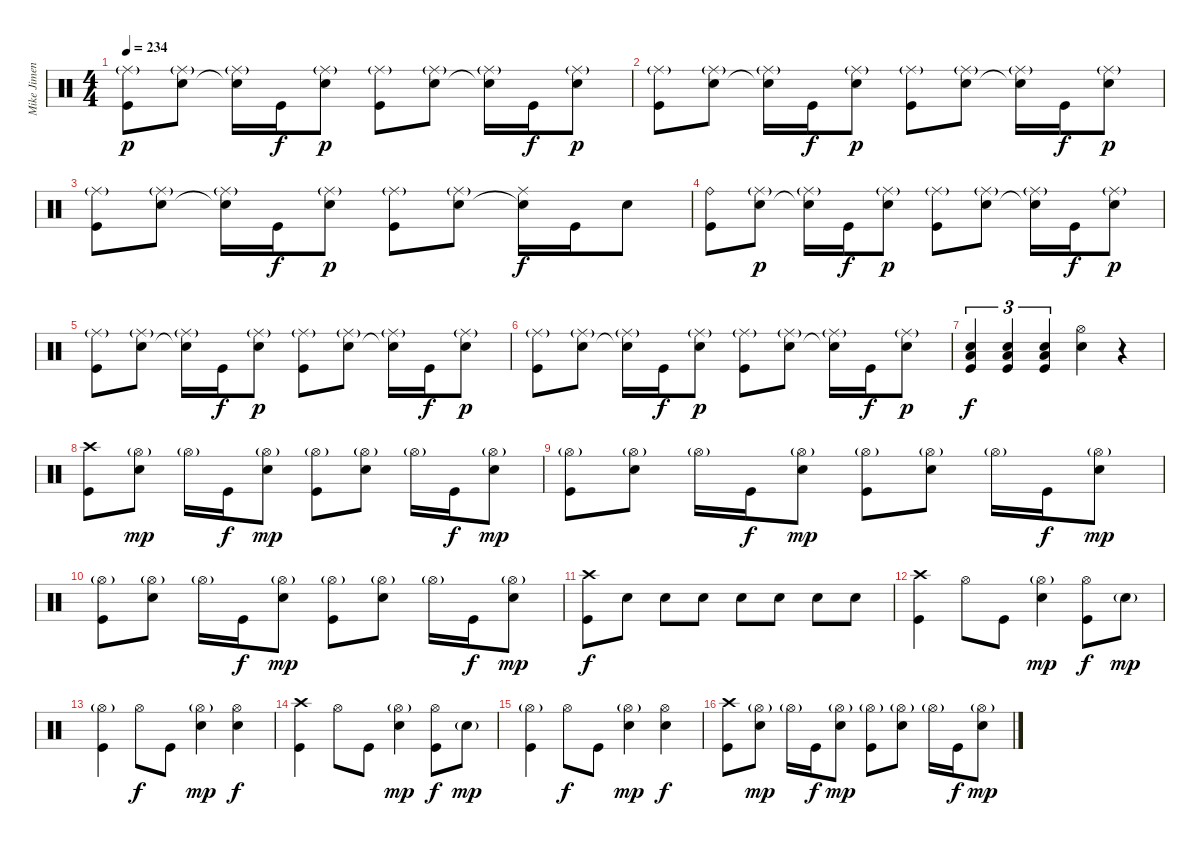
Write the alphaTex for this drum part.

\track ("Mike Jimenez" "Mike Jimen") {instrument percussion}
\staff {score}
\articulation defaults
\ts (4 4)
\tempo 234
\clef neutral
\ks c
("Ride (middle)"{g} "Kick (hit)").8{dy p} ("Ride (middle)"{g} "Electric Snare (hit)").8 ("Ride (middle)"{g} "Snare (hit)"{t}).16 "Kick (hit)".16{dy f} ("Ride (middle)"{g} "Electric Snare (hit)").8{dy p} ("Ride (middle)"{g} "Kick (hit)").8 ("Ride (middle)"{g} "Electric Snare (hit)").8 ("Ride (middle)"{g} "Snare (hit)"{t}).16 "Kick (hit)".16{dy f} ("Ride (middle)"{g} "Electric Snare (hit)").8{dy p} |
("Ride (middle)"{g} "Kick (hit)").8 ("Ride (middle)"{g} "Electric Snare (hit)").8 ("Ride (middle)"{g} "Snare (hit)"{t}).16 "Kick (hit)".16{dy f} ("Ride (middle)"{g} "Electric Snare (hit)").8{dy p} ("Ride (middle)"{g} "Kick (hit)").8 ("Ride (middle)"{g} "Electric Snare (hit)").8 ("Ride (middle)"{g} "Snare (hit)"{t}).16 "Kick (hit)".16{dy f} ("Ride (middle)"{g} "Electric Snare (hit)").8{dy p} |
("Ride (middle)"{g} "Kick (hit)").8 ("Ride (middle)"{g} "Electric Snare (hit)").8 ("Ride (middle)"{g} "Snare (hit)"{t}).16 "Kick (hit)".16{dy f} ("Ride (middle)"{g} "Electric Snare (hit)").8{dy p} ("Ride (middle)"{g} "Kick (hit)").8 ("Ride (middle)"{g} "Electric Snare (hit)").8 ("Ride (middle)" "Snare (hit)"{t}).16{dy f} "Kick (hit)".16 "Electric Snare (hit)".8 |
("Ride (bell)" "Kick (hit)").8 ("Ride (middle)"{g} "Electric Snare (hit)").8{dy p} ("Ride (middle)"{g} "Snare (hit)"{t}).16 "Kick (hit)".16{dy f} ("Ride (middle)"{g} "Electric Snare (hit)").8{dy p} ("Ride (middle)"{g} "Kick (hit)").8 ("Ride (middle)"{g} "Electric Snare (hit)").8 ("Ride (middle)"{g} "Snare (hit)"{t}).16 "Kick (hit)".16{dy f} ("Ride (middle)"{g} "Electric Snare (hit)").8{dy p} |
("Ride (middle)"{g} "Kick (hit)").8 ("Ride (middle)"{g} "Electric Snare (hit)").8 ("Ride (middle)"{g} "Snare (hit)"{t}).16 "Kick (hit)".16{dy f} ("Ride (middle)"{g} "Electric Snare (hit)").8{dy p} ("Ride (middle)"{g} "Kick (hit)").8 ("Ride (middle)"{g} "Electric Snare (hit)").8 ("Ride (middle)"{g} "Snare (hit)"{t}).16 "Kick (hit)".16{dy f} ("Ride (middle)"{g} "Electric Snare (hit)").8{dy p} |
("Ride (middle)"{g} "Kick (hit)").8 ("Ride (middle)"{g} "Electric Snare (hit)").8 ("Ride (middle)"{g} "Snare (hit)"{t}).16 "Kick (hit)".16{dy f} ("Ride (middle)"{g} "Electric Snare (hit)").8{dy p} ("Ride (middle)"{g} "Kick (hit)").8 ("Ride (middle)"{g} "Electric Snare (hit)").8 ("Ride (middle)"{g} "Snare (hit)"{t}).16 "Kick (hit)".16{dy f} ("Ride (middle)"{g} "Electric Snare (hit)").8{dy p} |
("Low Tom (hit)" "Kick (hit)" "Electric Snare (hit)").4{tu (3 2) dy f} ("Low Tom (hit)" "Kick (hit)" "Electric Snare (hit)").4{tu (3 2)} ("Low Tom (hit)" "Kick (hit)" "Electric Snare (hit)").4{tu (3 2)} ("Hi-Hat (open)" "Electric Snare (hit)").4 r.4 |
("Crash high (hit)" "Kick (hit)").8 ("Hi-Hat (open)"{g} "Electric Snare (hit)").8{dy mp} "Hi-Hat (open)"{g}.16 "Kick (hit)".16{dy f} ("Hi-Hat (open)"{g} "Electric Snare (hit)").8{dy mp} ("Hi-Hat (open)"{g} "Kick (hit)").8 ("Hi-Hat (open)"{g} "Electric Snare (hit)").8 "Hi-Hat (open)"{g}.16 "Kick (hit)".16{dy f} ("Hi-Hat (open)"{g} "Electric Snare (hit)").8{dy mp} |
("Hi-Hat (open)"{g} "Kick (hit)").8 ("Hi-Hat (open)"{g} "Electric Snare (hit)").8 "Hi-Hat (open)"{g}.16 "Kick (hit)".16{dy f} ("Hi-Hat (open)"{g} "Electric Snare (hit)").8{dy mp} ("Hi-Hat (open)"{g} "Kick (hit)").8 ("Hi-Hat (open)"{g} "Electric Snare (hit)").8 "Hi-Hat (open)"{g}.16 "Kick (hit)".16{dy f} ("Hi-Hat (open)"{g} "Electric Snare (hit)").8{dy mp} |
("Hi-Hat (open)"{g} "Kick (hit)").8 ("Hi-Hat (open)"{g} "Electric Snare (hit)").8 "Hi-Hat (open)"{g}.16 "Kick (hit)".16{dy f} ("Hi-Hat (open)"{g} "Electric Snare (hit)").8{dy mp} ("Hi-Hat (open)"{g} "Kick (hit)").8 ("Hi-Hat (open)"{g} "Electric Snare (hit)").8 "Hi-Hat (open)"{g}.16 "Kick (hit)".16{dy f} ("Hi-Hat (open)"{g} "Electric Snare (hit)").8{dy mp} |
("Crash high (hit)" "Kick (hit)").8{dy f} "Electric Snare (hit)".8 "Electric Snare (hit)".8 "Electric Snare (hit)".8 "Electric Snare (hit)".8 "Electric Snare (hit)".8 "Electric Snare (hit)".8 "Electric Snare (hit)".8 |
("Crash high (hit)" "Kick (hit)").4 "Hi-Hat (open)".8 "Kick (hit)".8 ("Hi-Hat (open)"{g} "Electric Snare (hit)").4{dy mp} ("Hi-Hat (open)" "Kick (hit)").8{dy f} "Electric Snare (hit)"{g}.8{dy mp} |
("Hi-Hat (open)"{g} "Kick (hit)").4 "Hi-Hat (open)".8{dy f} "Kick (hit)".8 ("Hi-Hat (open)"{g} "Electric Snare (hit)").4{dy mp} ("Hi-Hat (open)" "Electric Snare (hit)").4{dy f} |
("Crash high (hit)" "Kick (hit)").4 "Hi-Hat (open)".8 "Kick (hit)".8 ("Hi-Hat (open)"{g} "Electric Snare (hit)").4{dy mp} ("Hi-Hat (open)" "Kick (hit)").8{dy f} "Electric Snare (hit)"{g}.8{dy mp} |
("Hi-Hat (open)"{g} "Kick (hit)").4 "Hi-Hat (open)".8{dy f} "Kick (hit)".8 ("Hi-Hat (open)"{g} "Electric Snare (hit)").4{dy mp} ("Hi-Hat (open)" "Electric Snare (hit)").4{dy f} |
("Crash high (hit)" "Kick (hit)").8 ("Hi-Hat (open)"{g} "Electric Snare (hit)").8{dy mp} "Hi-Hat (open)"{g}.16 "Kick (hit)".16{dy f} ("Hi-Hat (open)"{g} "Electric Snare (hit)").8{dy mp} ("Hi-Hat (open)"{g} "Kick (hit)").8 ("Hi-Hat (open)"{g} "Electric Snare (hit)").8 "Hi-Hat (open)"{g}.16 "Kick (hit)".16{dy f} ("Hi-Hat (open)"{g} "Electric Snare (hit)").8{dy mp}
